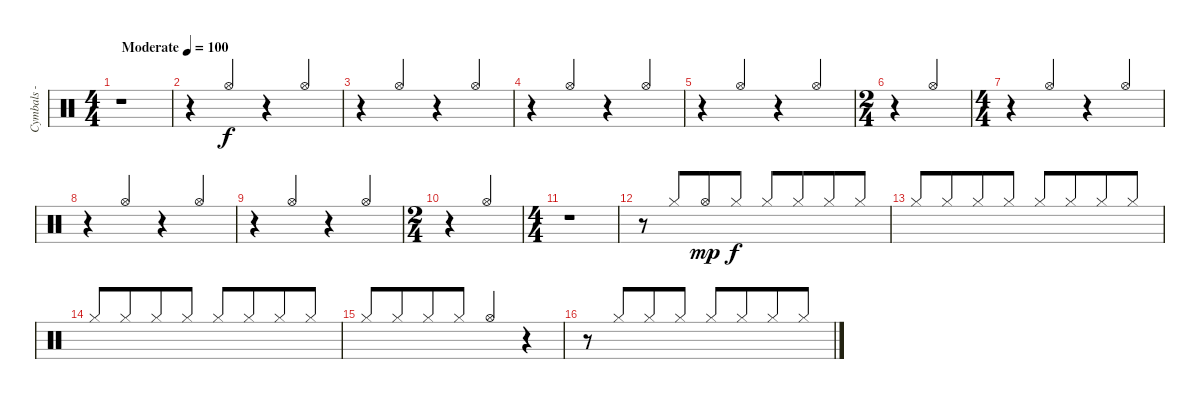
\track ("Cymbals - Hi-Hat" "Cymbals - ") {instrument percussion}
\staff {score}
\articulation defaults
\ts (4 4)
\tempo (100 "Moderate")
\clef neutral
\ks aminor
r.1{dy f volume 6 balance 10} |
\ks c
r.4 "Hi-Hat (open)".4{beam Up} r.4 "Hi-Hat (open)".4{beam Up} |
r.4 "Hi-Hat (open)".4{beam Up} r.4 "Hi-Hat (open)".4{beam Up} |
r.4 "Hi-Hat (open)".4{beam Up} r.4 "Hi-Hat (open)".4{beam Up} |
r.4 "Hi-Hat (open)".4{beam Up} r.4 "Hi-Hat (open)".4{beam Up} |
\ts (2 4)
r.4 "Hi-Hat (open)".4{beam Up} |
\ts (4 4)
r.4 "Hi-Hat (open)".4{beam Up} r.4 "Hi-Hat (open)".4{beam Up} |
r.4 "Hi-Hat (open)".4{beam Up} r.4 "Hi-Hat (open)".4{beam Up} |
r.4 "Hi-Hat (open)".4{beam Up} r.4 "Hi-Hat (open)".4{beam Up} |
\ts (2 4)
r.4 "Hi-Hat (open)".4{beam Up} |
\ts (4 4)
r.1 |
r.8{volume 8} "Hi-Hat (closed)".8{beam Up beam merge} "Hi-Hat (open)".8{dy mp beam Up} "Hi-Hat (closed)".8{dy f beam Up} "Hi-Hat (closed)".8{beam Up} "Hi-Hat (closed)".8{beam Up beam merge} "Hi-Hat (closed)".8{beam Up} "Hi-Hat (closed)".8{beam Up} |
"Hi-Hat (closed)".8{beam Up} "Hi-Hat (closed)".8{beam Up beam merge} "Hi-Hat (closed)".8{beam Up} "Hi-Hat (closed)".8{beam Up} "Hi-Hat (closed)".8{beam Up} "Hi-Hat (closed)".8{beam Up beam merge} "Hi-Hat (closed)".8{beam Up} "Hi-Hat (closed)".8{beam Up} |
"Hi-Hat (closed)".8{beam Up} "Hi-Hat (closed)".8{beam Up beam merge} "Hi-Hat (closed)".8{beam Up} "Hi-Hat (closed)".8{beam Up} "Hi-Hat (closed)".8{beam Up} "Hi-Hat (closed)".8{beam Up beam merge} "Hi-Hat (closed)".8{beam Up} "Hi-Hat (closed)".8{beam Up} |
"Hi-Hat (closed)".8{beam Up} "Hi-Hat (closed)".8{beam Up beam merge} "Hi-Hat (closed)".8{beam Up} "Hi-Hat (closed)".8{beam Up} "Hi-Hat (open)".4{beam Up} r.4 |
r.8 "Hi-Hat (closed)".8{beam Up beam merge} "Hi-Hat (closed)".8{beam Up} "Hi-Hat (closed)".8{beam Up} "Hi-Hat (closed)".8{beam Up} "Hi-Hat (closed)".8{beam Up beam merge} "Hi-Hat (closed)".8{beam Up} "Hi-Hat (closed)".8{beam Up}
